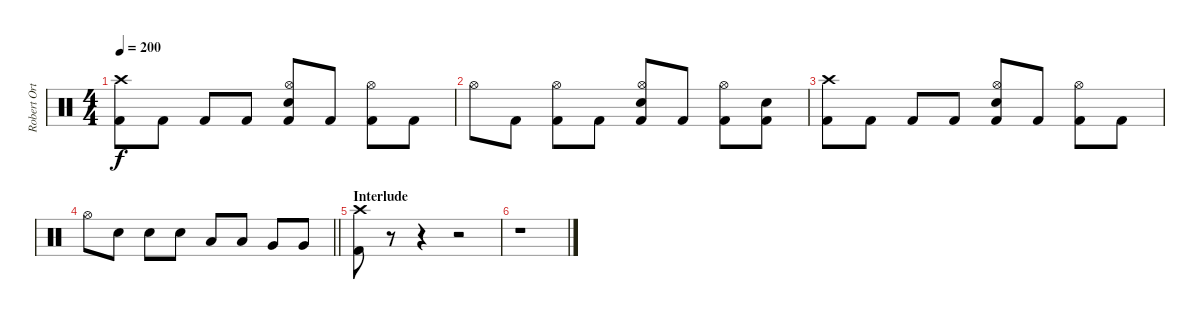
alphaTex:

\track ("Robert Ortiz" "Robert Ort") {instrument percussion}
\staff {score}
\articulation defaults
\ts (4 4)
\tempo 200
\clef neutral
\ks c
("Crash high (hit)" "Kick (hit) 2").8{dy f} "Kick (hit) 2".8 "Kick (hit) 2".8 "Kick (hit) 2".8 ("Hi-Hat (open)" "Electric Snare (hit)" "Kick (hit) 2").8 "Kick (hit) 2".8 ("Hi-Hat (open)" "Kick (hit) 2").8 "Kick (hit) 2".8 |
"Hi-Hat (open)".8 "Kick (hit) 2".8 ("Hi-Hat (open)" "Kick (hit) 2").8 "Kick (hit) 2".8 ("Hi-Hat (open)" "Electric Snare (hit)" "Kick (hit) 2").8 "Kick (hit) 2".8 ("Hi-Hat (open)" "Kick (hit) 2").8 ("Electric Snare (hit)" "Kick (hit) 2").8 |
("Crash high (hit)" "Kick (hit) 2").8 "Kick (hit) 2".8 "Kick (hit) 2".8 "Kick (hit) 2".8 ("Hi-Hat (open)" "Electric Snare (hit)" "Kick (hit) 2").8 "Kick (hit) 2".8 ("Hi-Hat (open)" "Kick (hit) 2").8 "Kick (hit) 2".8 |
\barLineRight lightlight "Hi-Hat (open)".8 "Electric Snare (hit)".8 "Electric Snare (hit)".8 "Electric Snare (hit)".8 "Low Tom (hit)".8 "Low Tom (hit)".8 "Very Low Tom (hit)".8 "Very Low Tom (hit)".8
|
\section ("" "Interlude")
("Crash high (hit)" "Kick (hit) 2").8 r.8 r.4 r.2 |
r.1
